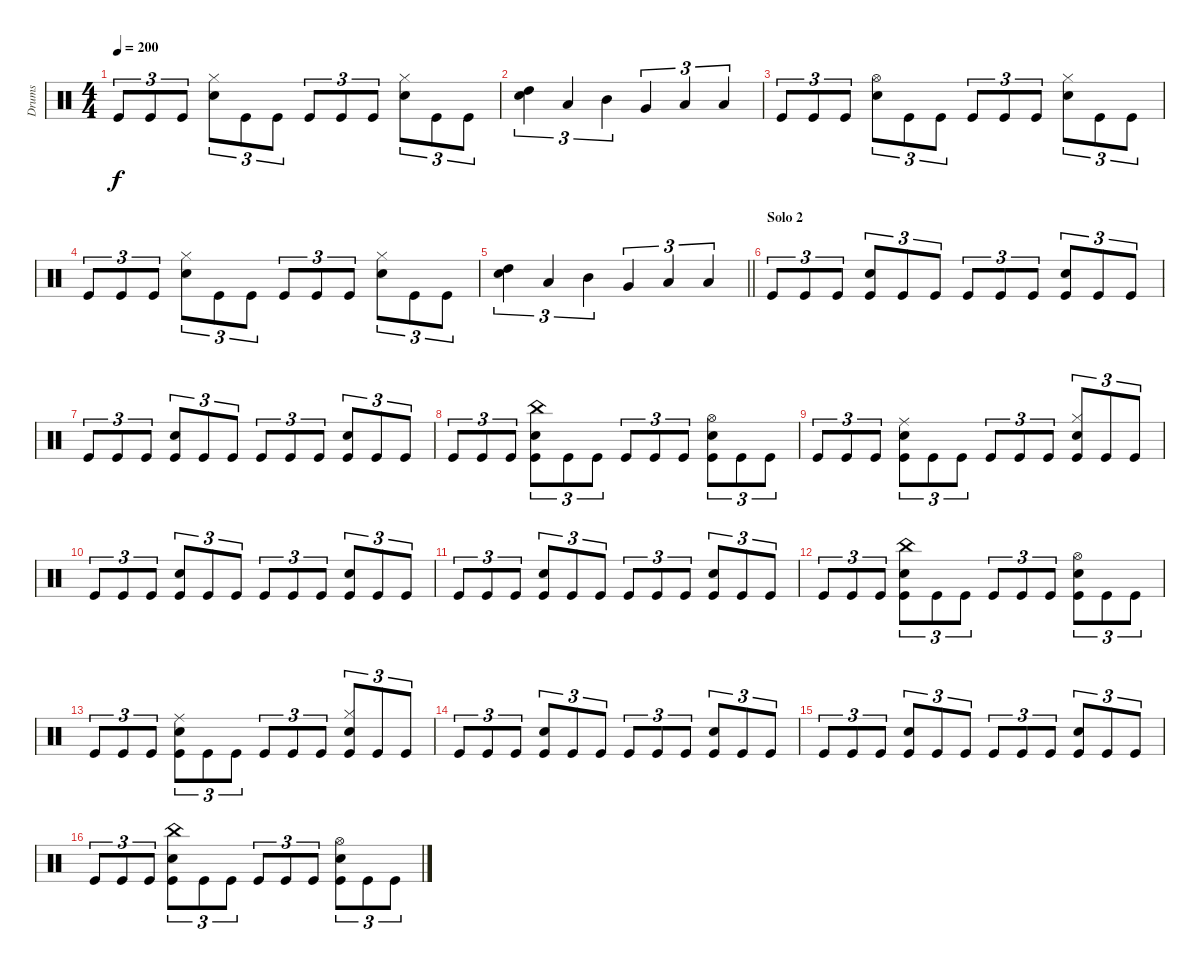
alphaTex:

\track ("Drums" "Drums") {instrument percussion}
\staff {score}
\articulation defaults
\ts (4 4)
\tempo 200
\clef neutral
\ks c "Kick (hit)".8{tu (3 2) dy f} "Kick (hit)".8{tu (3 2)} "Kick (hit)".8{tu (3 2)}
("Hi-Hat (closed)" "Snare (hit) 2").8{tu (3 2)} "Kick (hit)".8{tu (3 2)} "Kick (hit)".8{tu (3 2)} "Kick (hit)".8{tu (3 2)} "Kick (hit)".8{tu (3 2)} "Kick (hit)".8{tu (3 2)} ("Hi-Hat (closed)" "Snare (hit) 2").8{tu (3 2)} "Kick (hit)".8{tu (3 2)} "Kick (hit)".8{tu (3 2)} |
("Snare (hit) 2" "High Tom (hit)").4{tu (3 2)} "Low Tom (hit)".4{tu (3 2)} "Mid Tom (hit)".4{tu (3 2)} "Very Low Tom (hit)".4{tu (3 2)} "Low Tom (hit)".4{tu (3 2)} "Low Floor Tom (hit)".4{tu (3 2)} |
"Kick (hit)".8{tu (3 2)} "Kick (hit)".8{tu (3 2)} "Kick (hit)".8{tu (3 2)} ("Hi-Hat (open)" "Snare (hit) 2").8{tu (3 2)} "Kick (hit)".8{tu (3 2)} "Kick (hit)".8{tu (3 2)} "Kick (hit)".8{tu (3 2)} "Kick (hit)".8{tu (3 2)} "Kick (hit)".8{tu (3 2)} ("Hi-Hat (closed)" "Snare (hit) 2").8{tu (3 2)} "Kick (hit)".8{tu (3 2)} "Kick (hit)".8{tu (3 2)} |
"Kick (hit)".8{tu (3 2)} "Kick (hit)".8{tu (3 2)} "Kick (hit)".8{tu (3 2)} ("Hi-Hat (closed)" "Snare (hit) 2").8{tu (3 2)} "Kick (hit)".8{tu (3 2)} "Kick (hit)".8{tu (3 2)} "Kick (hit)".8{tu (3 2)} "Kick (hit)".8{tu (3 2)} "Kick (hit)".8{tu (3 2)} ("Hi-Hat (closed)" "Snare (hit) 2").8{tu (3 2)} "Kick (hit)".8{tu (3 2)} "Kick (hit)".8{tu (3 2)} |
\barLineRight lightlight
("Snare (hit) 2" "High Tom (hit)").4{tu (3 2)} "Low Tom (hit)".4{tu (3 2)} "Mid Tom (hit)".4{tu (3 2)} "Very Low Tom (hit)".4{tu (3 2)} "Low Tom (hit)".4{tu (3 2)} "Low Floor Tom (hit)".4{tu (3 2)} |
\section ("" "Solo 2")
"Kick (hit)".8{tu (3 2)} "Kick (hit)".8{tu (3 2)} "Kick (hit)".8{tu (3 2)} ("Snare (hit) 2" "Kick (hit)").8{tu (3 2)} "Kick (hit)".8{tu (3 2)} "Kick (hit)".8{tu (3 2)} "Kick (hit)".8{tu (3 2)} "Kick (hit)".8{tu (3 2)} "Kick (hit)".8{tu (3 2)} ("Snare (hit) 2" "Kick (hit)").8{tu (3 2)} "Kick (hit)".8{tu (3 2)} "Kick (hit)".8{tu (3 2)} |
"Kick (hit)".8{tu (3 2)} "Kick (hit)".8{tu (3 2)} "Kick (hit)".8{tu (3 2)} ("Snare (hit) 2" "Kick (hit)").8{tu (3 2)} "Kick (hit)".8{tu (3 2)} "Kick (hit)".8{tu (3 2)} "Kick (hit)".8{tu (3 2)} "Kick (hit)".8{tu (3 2)} "Kick (hit)".8{tu (3 2)} ("Snare (hit) 2" "Kick (hit)").8{tu (3 2)} "Kick (hit)".8{tu (3 2)} "Kick (hit)".8{tu (3 2)} |
"Kick (hit)".8{tu (3 2)} "Kick (hit)".8{tu (3 2)} "Kick (hit)".8{tu (3 2)} ("China (hit)" "Snare (hit) 2" "Kick (hit)").8{tu (3 2)} "Kick (hit)".8{tu (3 2)} "Kick (hit)".8{tu (3 2)} "Kick (hit)".8{tu (3 2)} "Kick (hit)".8{tu (3 2)} "Kick (hit)".8{tu (3 2)} ("Hi-Hat (open)" "Snare (hit) 2" "Kick (hit)").8{tu (3 2)} "Kick (hit)".8{tu (3 2)} "Kick (hit)".8{tu (3 2)} |
"Kick (hit)".8{tu (3 2)} "Kick (hit)".8{tu (3 2)} "Kick (hit)".8{tu (3 2)} ("Ride (middle)" "Snare (hit) 2" "Kick (hit)").8{tu (3 2)} "Kick (hit)".8{tu (3 2)} "Kick (hit)".8{tu (3 2)} "Kick (hit)".8{tu (3 2)} "Kick (hit)".8{tu (3 2)} "Kick (hit)".8{tu (3 2)} ("Hi-Hat (closed)" "Snare (hit) 2" "Kick (hit)").8{tu (3 2)} "Kick (hit)".8{tu (3 2)} "Kick (hit)".8{tu (3 2)} |
"Kick (hit)".8{tu (3 2)} "Kick (hit)".8{tu (3 2)} "Kick (hit)".8{tu (3 2)} ("Snare (hit) 2" "Kick (hit)").8{tu (3 2)} "Kick (hit)".8{tu (3 2)} "Kick (hit)".8{tu (3 2)} "Kick (hit)".8{tu (3 2)} "Kick (hit)".8{tu (3 2)} "Kick (hit)".8{tu (3 2)} ("Snare (hit) 2" "Kick (hit)").8{tu (3 2)} "Kick (hit)".8{tu (3 2)} "Kick (hit)".8{tu (3 2)} |
"Kick (hit)".8{tu (3 2)} "Kick (hit)".8{tu (3 2)} "Kick (hit)".8{tu (3 2)} ("Snare (hit) 2" "Kick (hit)").8{tu (3 2)} "Kick (hit)".8{tu (3 2)} "Kick (hit)".8{tu (3 2)} "Kick (hit)".8{tu (3 2)} "Kick (hit)".8{tu (3 2)} "Kick (hit)".8{tu (3 2)} ("Snare (hit) 2" "Kick (hit)").8{tu (3 2)} "Kick (hit)".8{tu (3 2)} "Kick (hit)".8{tu (3 2)} |
"Kick (hit)".8{tu (3 2)} "Kick (hit)".8{tu (3 2)} "Kick (hit)".8{tu (3 2)} ("China (hit)" "Snare (hit) 2" "Kick (hit)").8{tu (3 2)} "Kick (hit)".8{tu (3 2)} "Kick (hit)".8{tu (3 2)} "Kick (hit)".8{tu (3 2)} "Kick (hit)".8{tu (3 2)} "Kick (hit)".8{tu (3 2)} ("Hi-Hat (open)" "Snare (hit) 2" "Kick (hit)").8{tu (3 2)} "Kick (hit)".8{tu (3 2)} "Kick (hit)".8{tu (3 2)} |
"Kick (hit)".8{tu (3 2)} "Kick (hit)".8{tu (3 2)} "Kick (hit)".8{tu (3 2)} ("Ride (middle)" "Snare (hit) 2" "Kick (hit)").8{tu (3 2)} "Kick (hit)".8{tu (3 2)} "Kick (hit)".8{tu (3 2)} "Kick (hit)".8{tu (3 2)} "Kick (hit)".8{tu (3 2)} "Kick (hit)".8{tu (3 2)} ("Hi-Hat (closed)" "Snare (hit) 2" "Kick (hit)").8{tu (3 2)} "Kick (hit)".8{tu (3 2)} "Kick (hit)".8{tu (3 2)} |
"Kick (hit)".8{tu (3 2)} "Kick (hit)".8{tu (3 2)} "Kick (hit)".8{tu (3 2)} ("Snare (hit) 2" "Kick (hit)").8{tu (3 2)} "Kick (hit)".8{tu (3 2)} "Kick (hit)".8{tu (3 2)} "Kick (hit)".8{tu (3 2)} "Kick (hit)".8{tu (3 2)} "Kick (hit)".8{tu (3 2)} ("Snare (hit) 2" "Kick (hit)").8{tu (3 2)} "Kick (hit)".8{tu (3 2)} "Kick (hit)".8{tu (3 2)} |
"Kick (hit)".8{tu (3 2)} "Kick (hit)".8{tu (3 2)} "Kick (hit)".8{tu (3 2)} ("Snare (hit) 2" "Kick (hit)").8{tu (3 2)} "Kick (hit)".8{tu (3 2)} "Kick (hit)".8{tu (3 2)} "Kick (hit)".8{tu (3 2)} "Kick (hit)".8{tu (3 2)} "Kick (hit)".8{tu (3 2)} ("Snare (hit) 2" "Kick (hit)").8{tu (3 2)} "Kick (hit)".8{tu (3 2)} "Kick (hit)".8{tu (3 2)} |
"Kick (hit)".8{tu (3 2)} "Kick (hit)".8{tu (3 2)} "Kick (hit)".8{tu (3 2)} ("China (hit)" "Snare (hit) 2" "Kick (hit)").8{tu (3 2)} "Kick (hit)".8{tu (3 2)} "Kick (hit)".8{tu (3 2)} "Kick (hit)".8{tu (3 2)} "Kick (hit)".8{tu (3 2)} "Kick (hit)".8{tu (3 2)} ("Hi-Hat (open)" "Snare (hit) 2" "Kick (hit)").8{tu (3 2)} "Kick (hit)".8{tu (3 2)} "Kick (hit)".8{tu (3 2)}
